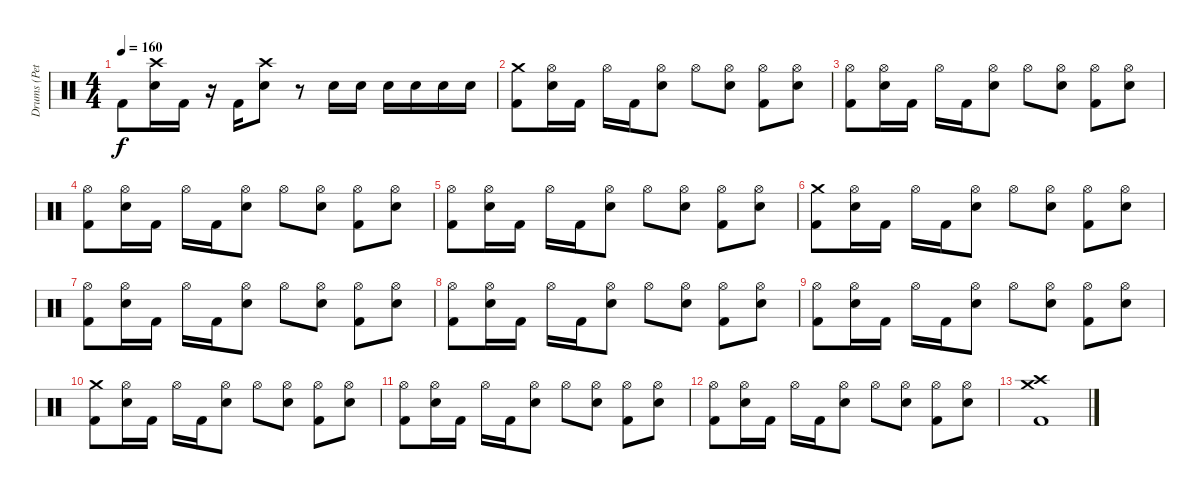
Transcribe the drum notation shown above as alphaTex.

\track ("Drums (Pete)" "Drums (Pet") {instrument percussion}
\staff {score}
\articulation defaults
\ts (4 4)
\tempo 160
\clef neutral
\ks c "Kick (hit) 2".8{dy f}
("Crash high (hit)" "Snare (hit) 2").16 "Kick (hit) 2".16 r.16 "Kick (hit) 2".16 ("Crash high (hit)" "Snare (hit) 2").8 r.8 "Snare (hit) 2".16 "Snare (hit) 2".16 "Snare (hit) 2".16 "Snare (hit) 2".16 "Snare (hit) 2".16 "Snare (hit) 2".16 |
("Crash medium (hit)" "Kick (hit) 2").8 ("Hi-Hat (open)" "Snare (hit) 2").16 "Kick (hit) 2".16 "Hi-Hat (open)".16 "Kick (hit) 2".16 ("Hi-Hat (open)" "Snare (hit) 2").8 "Hi-Hat (open)".8 ("Hi-Hat (open)" "Snare (hit) 2").8 ("Hi-Hat (open)" "Kick (hit) 2").8 ("Hi-Hat (open)" "Snare (hit) 2").8 |
("Hi-Hat (open)" "Kick (hit) 2").8 ("Hi-Hat (open)" "Snare (hit) 2").16 "Kick (hit) 2".16 "Hi-Hat (open)".16 "Kick (hit) 2".16 ("Hi-Hat (open)" "Snare (hit) 2").8 "Hi-Hat (open)".8 ("Hi-Hat (open)" "Snare (hit) 2").8 ("Hi-Hat (open)" "Kick (hit) 2").8 ("Hi-Hat (open)" "Snare (hit) 2").8 |
("Hi-Hat (open)" "Kick (hit) 2").8 ("Hi-Hat (open)" "Snare (hit) 2").16 "Kick (hit) 2".16 "Hi-Hat (open)".16 "Kick (hit) 2".16 ("Hi-Hat (open)" "Snare (hit) 2").8 "Hi-Hat (open)".8 ("Hi-Hat (open)" "Snare (hit) 2").8 ("Hi-Hat (open)" "Kick (hit) 2").8 ("Hi-Hat (open)" "Snare (hit) 2").8 |
("Hi-Hat (open)" "Kick (hit) 2").8 ("Hi-Hat (open)" "Snare (hit) 2").16 "Kick (hit) 2".16 "Hi-Hat (open)".16 "Kick (hit) 2".16 ("Hi-Hat (open)" "Snare (hit) 2").8 "Hi-Hat (open)".8 ("Hi-Hat (open)" "Snare (hit) 2").8 ("Hi-Hat (open)" "Kick (hit) 2").8 ("Hi-Hat (open)" "Snare (hit) 2").8 |
("Crash medium (hit)" "Kick (hit) 2").8 ("Hi-Hat (open)" "Snare (hit) 2").16 "Kick (hit) 2".16 "Hi-Hat (open)".16 "Kick (hit) 2".16 ("Hi-Hat (open)" "Snare (hit) 2").8 "Hi-Hat (open)".8 ("Hi-Hat (open)" "Snare (hit) 2").8 ("Hi-Hat (open)" "Kick (hit) 2").8 ("Hi-Hat (open)" "Snare (hit) 2").8 |
("Hi-Hat (open)" "Kick (hit) 2").8 ("Hi-Hat (open)" "Snare (hit) 2").16 "Kick (hit) 2".16 "Hi-Hat (open)".16 "Kick (hit) 2".16 ("Hi-Hat (open)" "Snare (hit) 2").8 "Hi-Hat (open)".8 ("Hi-Hat (open)" "Snare (hit) 2").8 ("Hi-Hat (open)" "Kick (hit) 2").8 ("Hi-Hat (open)" "Snare (hit) 2").8 |
("Hi-Hat (open)" "Kick (hit) 2").8 ("Hi-Hat (open)" "Snare (hit) 2").16 "Kick (hit) 2".16 "Hi-Hat (open)".16 "Kick (hit) 2".16 ("Hi-Hat (open)" "Snare (hit) 2").8 "Hi-Hat (open)".8 ("Hi-Hat (open)" "Snare (hit) 2").8 ("Hi-Hat (open)" "Kick (hit) 2").8 ("Hi-Hat (open)" "Snare (hit) 2").8 |
("Hi-Hat (open)" "Kick (hit) 2").8 ("Hi-Hat (open)" "Snare (hit) 2").16 "Kick (hit) 2".16 "Hi-Hat (open)".16 "Kick (hit) 2".16 ("Hi-Hat (open)" "Snare (hit) 2").8 "Hi-Hat (open)".8 ("Hi-Hat (open)" "Snare (hit) 2").8 ("Hi-Hat (open)" "Kick (hit) 2").8 ("Hi-Hat (open)" "Snare (hit) 2").8 |
("Crash medium (hit)" "Kick (hit) 2").8 ("Hi-Hat (open)" "Snare (hit) 2").16 "Kick (hit) 2".16 "Hi-Hat (open)".16 "Kick (hit) 2".16 ("Hi-Hat (open)" "Snare (hit) 2").8 "Hi-Hat (open)".8 ("Hi-Hat (open)" "Snare (hit) 2").8 ("Hi-Hat (open)" "Kick (hit) 2").8 ("Hi-Hat (open)" "Snare (hit) 2").8 |
("Hi-Hat (open)" "Kick (hit) 2").8 ("Hi-Hat (open)" "Snare (hit) 2").16 "Kick (hit) 2".16 "Hi-Hat (open)".16 "Kick (hit) 2".16 ("Hi-Hat (open)" "Snare (hit) 2").8 "Hi-Hat (open)".8 ("Hi-Hat (open)" "Snare (hit) 2").8 ("Hi-Hat (open)" "Kick (hit) 2").8 ("Hi-Hat (open)" "Snare (hit) 2").8 |
("Hi-Hat (open)" "Kick (hit) 2").8 ("Hi-Hat (open)" "Snare (hit) 2").16 "Kick (hit) 2".16 "Hi-Hat (open)".16 "Kick (hit) 2".16 ("Hi-Hat (open)" "Snare (hit) 2").8 "Hi-Hat (open)".8 ("Hi-Hat (open)" "Snare (hit) 2").8 ("Hi-Hat (open)" "Kick (hit) 2").8 ("Hi-Hat (open)" "Snare (hit) 2").8 |
("Crash high (hit)" "Crash medium (hit)" "Kick (hit) 2").1
